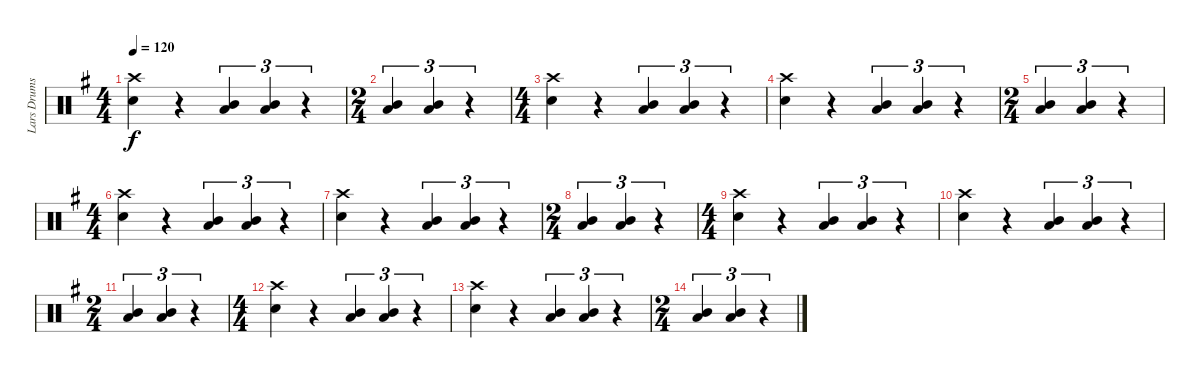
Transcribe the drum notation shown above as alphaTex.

\track ("Lars Drums" "Lars Drums") {instrument percussion}
\staff {score}
\articulation defaults
\ts (4 4)
\tempo 120
\clef neutral
\ks g
("Crash high (hit)" "Snare (hit) 2").4{dy f} r.4 ("Mid Tom (hit)" "Low Tom (hit)").4{tu (3 2)} ("Mid Tom (hit)" "Low Tom (hit)").4{tu (3 2)} r.4{tu (3 2)} |
\ts (2 4)
("Mid Tom (hit)" "Low Tom (hit)").4{tu (3 2)} ("Mid Tom (hit)" "Low Tom (hit)").4{tu (3 2)} r.4{tu (3 2)} |
\ts (4 4)
("Crash high (hit)" "Snare (hit) 2").4 r.4 ("Mid Tom (hit)" "Low Tom (hit)").4{tu (3 2)} ("Mid Tom (hit)" "Low Tom (hit)").4{tu (3 2)} r.4{tu (3 2)} |
("Crash high (hit)" "Snare (hit) 2").4 r.4 ("Mid Tom (hit)" "Low Tom (hit)").4{tu (3 2)} ("Mid Tom (hit)" "Low Tom (hit)").4{tu (3 2)} r.4{tu (3 2)} |
\ts (2 4)
("Mid Tom (hit)" "Low Tom (hit)").4{tu (3 2)} ("Mid Tom (hit)" "Low Tom (hit)").4{tu (3 2)} r.4{tu (3 2)} |
\ts (4 4)
("Crash high (hit)" "Snare (hit) 2").4 r.4 ("Mid Tom (hit)" "Low Tom (hit)").4{tu (3 2)} ("Mid Tom (hit)" "Low Tom (hit)").4{tu (3 2)} r.4{tu (3 2)} |
("Crash high (hit)" "Snare (hit) 2").4 r.4 ("Mid Tom (hit)" "Low Tom (hit)").4{tu (3 2)} ("Mid Tom (hit)" "Low Tom (hit)").4{tu (3 2)} r.4{tu (3 2)} |
\ts (2 4)
("Mid Tom (hit)" "Low Tom (hit)").4{tu (3 2)} ("Mid Tom (hit)" "Low Tom (hit)").4{tu (3 2)} r.4{tu (3 2)} |
\ts (4 4)
("Crash high (hit)" "Snare (hit) 2").4 r.4 ("Mid Tom (hit)" "Low Tom (hit)").4{tu (3 2)} ("Mid Tom (hit)" "Low Tom (hit)").4{tu (3 2)} r.4{tu (3 2)} |
("Crash high (hit)" "Snare (hit) 2").4 r.4 ("Mid Tom (hit)" "Low Tom (hit)").4{tu (3 2)} ("Mid Tom (hit)" "Low Tom (hit)").4{tu (3 2)} r.4{tu (3 2)} |
\ts (2 4)
("Mid Tom (hit)" "Low Tom (hit)").4{tu (3 2)} ("Mid Tom (hit)" "Low Tom (hit)").4{tu (3 2)} r.4{tu (3 2)} |
\ts (4 4)
("Crash high (hit)" "Snare (hit) 2").4 r.4 ("Mid Tom (hit)" "Low Tom (hit)").4{tu (3 2)} ("Mid Tom (hit)" "Low Tom (hit)").4{tu (3 2)} r.4{tu (3 2)} |
("Crash high (hit)" "Snare (hit) 2").4 r.4 ("Mid Tom (hit)" "Low Tom (hit)").4{tu (3 2)} ("Mid Tom (hit)" "Low Tom (hit)").4{tu (3 2)} r.4{tu (3 2)} |
\ts (2 4)
("Mid Tom (hit)" "Low Tom (hit)").4{tu (3 2)} ("Mid Tom (hit)" "Low Tom (hit)").4{tu (3 2)} r.4{tu (3 2)}
